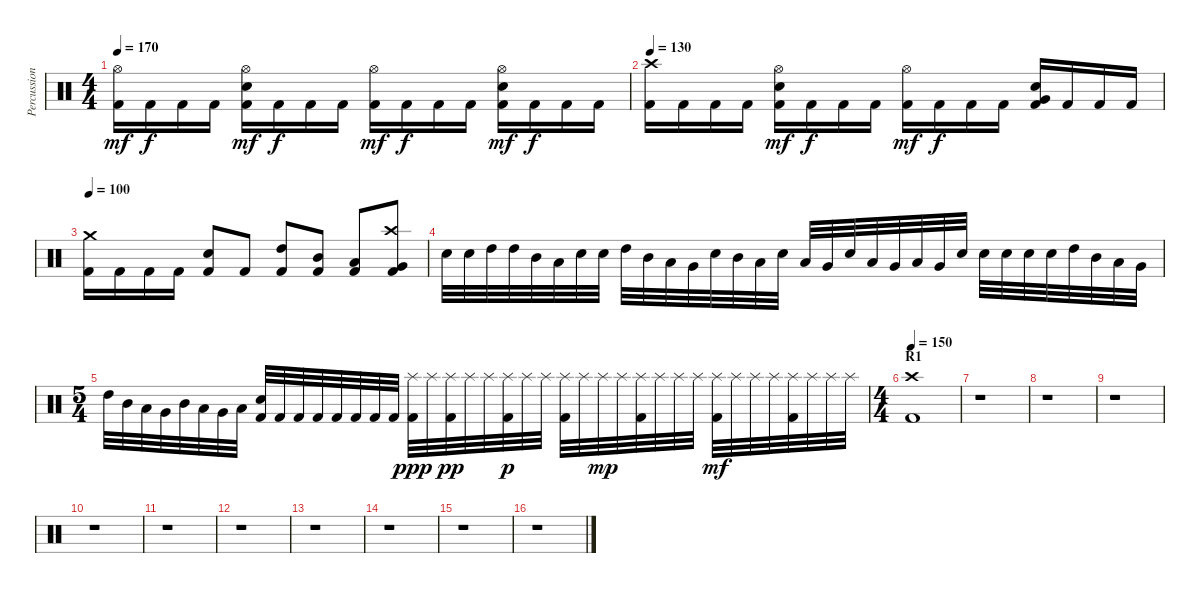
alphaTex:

\track ("Percussion" "Percussion") {instrument percussion}
\staff {score}
\articulation defaults
\ts (4 4)
\tempo 170
\clef neutral
\ks c
("Hi-Hat (open)" "Kick (hit) 2").16{dy mf} "Kick (hit) 2".16{dy f} "Kick (hit) 2".16 "Kick (hit) 2".16 ("Hi-Hat (open)" "Electric Snare (hit)" "Kick (hit) 2").16{dy mf} "Kick (hit) 2".16{dy f} "Kick (hit) 2".16 "Kick (hit) 2".16 ("Hi-Hat (open)" "Kick (hit) 2").16{dy mf} "Kick (hit) 2".16{dy f} "Kick (hit) 2".16 "Kick (hit) 2".16 ("Hi-Hat (open)" "Electric Snare (hit)" "Kick (hit) 2").16{dy mf} "Kick (hit) 2".16{dy f} "Kick (hit) 2".16 "Kick (hit) 2".16 |
\tempo 130
("Crash high (hit)" "Kick (hit) 2").16 "Kick (hit) 2".16 "Kick (hit) 2".16 "Kick (hit) 2".16 ("Hi-Hat (open)" "Electric Snare (hit)" "Kick (hit) 2").16{dy mf} "Kick (hit) 2".16{dy f} "Kick (hit) 2".16 "Kick (hit) 2".16 ("Hi-Hat (open)" "Kick (hit) 2").16{dy mf} "Kick (hit) 2".16{dy f} "Kick (hit) 2".16 "Kick (hit) 2".16 ("Very Low Tom (hit)" "Electric Snare (hit)" "Kick (hit) 2").16 "Kick (hit) 2".16 "Kick (hit) 2".16 "Kick (hit) 2".16 |
\tempo 100
("Crash medium (hit)" "Kick (hit) 2").16 "Kick (hit) 2".16 "Kick (hit) 2".16 "Kick (hit) 2".16 ("Electric Snare (hit)" "Kick (hit) 2").8 "Kick (hit) 2".8 ("High Tom (hit)" "Kick (hit) 2").8 ("Mid Tom (hit)" "Kick (hit) 2").8 ("Low Tom (hit)" "Kick (hit) 2").8 ("Crash high (hit)" "Very Low Tom (hit)" "Kick (hit) 2").8 |
"Electric Snare (hit)".32 "Electric Snare (hit)".32 "High Tom (hit)".32 "High Tom (hit)".32 "Mid Tom (hit)".32 "Low Tom (hit)".32 "Electric Snare (hit)".32 "Electric Snare (hit)".32 "High Tom (hit)".32 "Mid Tom (hit)".32 "Low Tom (hit)".32 "Very Low Tom (hit)".32 "Electric Snare (hit)".32 "Mid Tom (hit)".32 "Low Tom (hit)".32 "Electric Snare (hit)".32 "Low Tom (hit)".32 "Very Low Tom (hit)".32 "Electric Snare (hit)".32 "Low Tom (hit)".32 "Very Low Tom (hit)".32 "Low Floor Tom (hit)".32 "Very Low Tom (hit)".32 "Electric Snare (hit)".32 "Electric Snare (hit)".32 "Electric Snare (hit)".32 "Electric Snare (hit)".32 "Electric Snare (hit)".32 "High Tom (hit)".32 "Mid Tom (hit)".32 "Low Tom (hit)".32 "Very Low Tom (hit)".32 |
\ts (5 4)
"High Tom (hit)".32 "Mid Tom (hit)".32 "Low Tom (hit)".32 "Very Low Tom (hit)".32 "Mid Tom (hit)".32 "Low Tom (hit)".32 "Very Low Tom (hit)".32 "Low Floor Tom (hit)".32 ("Electric Snare (hit)" "Kick (hit) 2").32 "Kick (hit) 2".32 "Kick (hit) 2".32 "Kick (hit) 2".32 "Kick (hit) 2".32 "Kick (hit) 2".32 "Kick (hit) 2".32 "Kick (hit) 2".32 ("Splash (hit)" "Kick (hit) 2").32{dy ppp} "Splash (hit)".32 ("Splash (hit)" "Kick (hit) 2").32{dy pp} "Splash (hit)".32 "Splash (hit)".32 ("Splash (hit)" "Kick (hit) 2").32{dy p} "Splash (hit)".32 "Splash (hit)".32 ("Splash (hit)" "Kick (hit) 2").32 "Splash (hit)".32 "Splash (hit)".32{dy mp} "Splash (hit)".32 ("Splash (hit)" "Kick (hit) 2").32 "Splash (hit)".32 "Splash (hit)".32 "Splash (hit)".32 ("Splash (hit)" "Kick (hit) 2").32{dy mf} "Splash (hit)".32 "Splash (hit)".32 "Splash (hit)".32 ("Splash (hit)" "Kick (hit) 2").32 "Splash (hit)".32 "Splash (hit)".32 "Splash (hit)".32 |
\ts (4 4)
\section ("" "R1")
\tempo 150
("Crash high (hit)" "Kick (hit) 2").1 |
r.1 |
r.1 |
r.1 |
r.1 |
r.1 |
r.1 |
r.1 |
\section ("" "")
r.1 |
r.1 |
r.1
